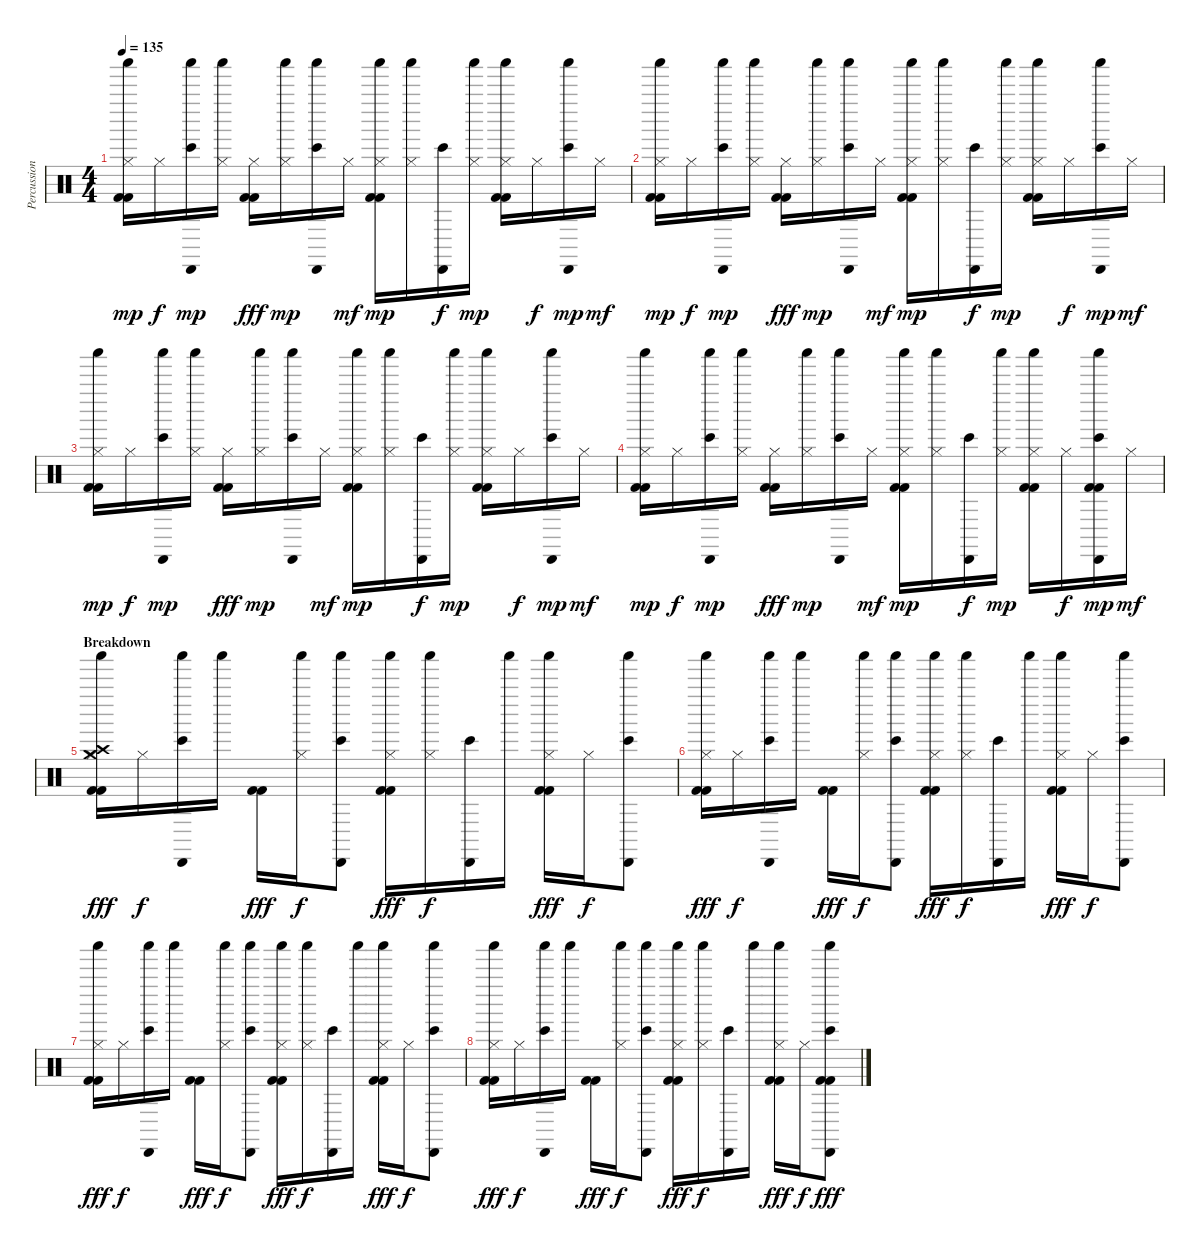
\track ("Percussion" "Percussion") {instrument percussion}
\staff {score}
\articulation defaults
\ts (4 4)
\tempo 135
\clef neutral
\ks c
("Hi-Hat (closed)" "Kick (hit) 2" "Kick (hit) 2" "Shaker (hit)").16{dy mp} "Hi-Hat (closed)".16{dy f} ("Cabasa (hit)" "Bongo High (hit)" "Shaker (hit)").16{dy mp} ("Hi-Hat (closed)" "Shaker (hit)").16 ("Hi-Hat (closed)" "Kick (hit) 2" "Kick (hit) 2").16{dy fff} ("Hi-Hat (closed)" "Shaker (hit)").16{dy mp} ("Cabasa (hit)" "Bongo High (hit)" "Shaker (hit)").16 "Hi-Hat (closed)".16{dy mf} ("Hi-Hat (closed)" "Kick (hit) 2" "Kick (hit) 2" "Shaker (hit)").16{dy mp} ("Hi-Hat (closed)" "Shaker (hit)").16 ("Cabasa (hit)" "Bongo High (hit)").16{dy f} ("Hi-Hat (closed)" "Shaker (hit)").16{dy mp} ("Hi-Hat (closed)" "Kick (hit) 2" "Kick (hit) 2" "Shaker (hit)").16 "Hi-Hat (closed)".16{dy f} ("Cabasa (hit)" "Bongo High (hit)" "Shaker (hit)").16{dy mp} "Hi-Hat (closed)".16{dy mf} |
("Hi-Hat (closed)" "Kick (hit) 2" "Kick (hit) 2" "Shaker (hit)").16{dy mp} "Hi-Hat (closed)".16{dy f} ("Cabasa (hit)" "Bongo High (hit)" "Shaker (hit)").16{dy mp} ("Hi-Hat (closed)" "Shaker (hit)").16 ("Hi-Hat (closed)" "Kick (hit) 2" "Kick (hit) 2").16{dy fff} ("Hi-Hat (closed)" "Shaker (hit)").16{dy mp} ("Cabasa (hit)" "Bongo High (hit)" "Shaker (hit)").16 "Hi-Hat (closed)".16{dy mf} ("Hi-Hat (closed)" "Kick (hit) 2" "Kick (hit) 2" "Shaker (hit)").16{dy mp} ("Hi-Hat (closed)" "Shaker (hit)").16 ("Cabasa (hit)" "Bongo High (hit)").16{dy f} ("Hi-Hat (closed)" "Shaker (hit)").16{dy mp} ("Hi-Hat (closed)" "Kick (hit) 2" "Kick (hit) 2" "Shaker (hit)").16 "Hi-Hat (closed)".16{dy f} ("Cabasa (hit)" "Bongo High (hit)" "Shaker (hit)").16{dy mp} "Hi-Hat (closed)".16{dy mf} |
("Hi-Hat (closed)" "Kick (hit) 2" "Kick (hit) 2" "Shaker (hit)").16{dy mp} "Hi-Hat (closed)".16{dy f} ("Cabasa (hit)" "Bongo High (hit)" "Shaker (hit)").16{dy mp} ("Hi-Hat (closed)" "Shaker (hit)").16 ("Hi-Hat (closed)" "Kick (hit) 2" "Kick (hit) 2").16{dy fff} ("Hi-Hat (closed)" "Shaker (hit)").16{dy mp} ("Cabasa (hit)" "Bongo High (hit)" "Shaker (hit)").16 "Hi-Hat (closed)".16{dy mf} ("Hi-Hat (closed)" "Kick (hit) 2" "Kick (hit) 2" "Shaker (hit)").16{dy mp} ("Hi-Hat (closed)" "Shaker (hit)").16 ("Cabasa (hit)" "Bongo High (hit)").16{dy f} ("Hi-Hat (closed)" "Shaker (hit)").16{dy mp} ("Hi-Hat (closed)" "Kick (hit) 2" "Kick (hit) 2" "Shaker (hit)").16 "Hi-Hat (closed)".16{dy f} ("Cabasa (hit)" "Bongo High (hit)" "Shaker (hit)").16{dy mp} "Hi-Hat (closed)".16{dy mf} |
("Hi-Hat (closed)" "Kick (hit) 2" "Kick (hit) 2" "Shaker (hit)").16{dy mp} "Hi-Hat (closed)".16{dy f} ("Cabasa (hit)" "Bongo High (hit)" "Shaker (hit)").16{dy mp} ("Hi-Hat (closed)" "Shaker (hit)").16 ("Hi-Hat (closed)" "Kick (hit) 2" "Kick (hit) 2").16{dy fff} ("Hi-Hat (closed)" "Shaker (hit)").16{dy mp} ("Cabasa (hit)" "Bongo High (hit)" "Shaker (hit)").16 "Hi-Hat (closed)".16{dy mf} ("Hi-Hat (closed)" "Kick (hit) 2" "Kick (hit) 2" "Shaker (hit)").16{dy mp} ("Hi-Hat (closed)" "Shaker (hit)").16 ("Cabasa (hit)" "Bongo High (hit)").16{dy f} ("Hi-Hat (closed)" "Shaker (hit)").16{dy mp} ("Hi-Hat (closed)" "Kick (hit) 2" "Kick (hit) 2" "Shaker (hit)").16 "Hi-Hat (closed)".16{dy f} ("Cabasa (hit)" "Bongo High (hit)" "Kick (hit) 2" "Kick (hit) 2" "Shaker (hit)").16{dy mp} "Hi-Hat (closed)".16{dy mf} |
\section ("" "Breakdown")
("Crash medium (hit)" "Hi-Hat (closed)" "Crash high (hit)" "Kick (hit) 2" "Kick (hit) 2" "Shaker (hit)").16{dy fff} "Hi-Hat (closed)".16{dy f} ("Cabasa (hit)" "Bongo High (hit)" "Shaker (hit)").16 "Shaker (hit)".16 ("Kick (hit) 2" "Kick (hit) 2").16{dy fff} ("Hi-Hat (closed)" "Shaker (hit)").16{dy f} ("Cabasa (hit)" "Bongo High (hit)" "Shaker (hit)").8 ("Hi-Hat (closed)" "Kick (hit) 2" "Kick (hit) 2" "Shaker (hit)").16{dy fff} ("Hi-Hat (closed)" "Shaker (hit)").16{dy f} ("Cabasa (hit)" "Bongo High (hit)").16 "Shaker (hit)".16 ("Hi-Hat (closed)" "Kick (hit) 2" "Kick (hit) 2" "Shaker (hit)").16{dy fff} "Hi-Hat (closed)".16{dy f} ("Cabasa (hit)" "Bongo High (hit)" "Shaker (hit)").8 |
("Hi-Hat (closed)" "Kick (hit) 2" "Kick (hit) 2" "Shaker (hit)").16{dy fff} "Hi-Hat (closed)".16{dy f} ("Cabasa (hit)" "Bongo High (hit)" "Shaker (hit)").16 "Shaker (hit)".16 ("Kick (hit) 2" "Kick (hit) 2").16{dy fff} ("Hi-Hat (closed)" "Shaker (hit)").16{dy f} ("Cabasa (hit)" "Bongo High (hit)" "Shaker (hit)").8 ("Hi-Hat (closed)" "Kick (hit) 2" "Kick (hit) 2" "Shaker (hit)").16{dy fff} ("Hi-Hat (closed)" "Shaker (hit)").16{dy f} ("Cabasa (hit)" "Bongo High (hit)").16 "Shaker (hit)".16 ("Hi-Hat (closed)" "Kick (hit) 2" "Kick (hit) 2" "Shaker (hit)").16{dy fff} "Hi-Hat (closed)".16{dy f} ("Cabasa (hit)" "Bongo High (hit)" "Shaker (hit)").8 |
("Hi-Hat (closed)" "Kick (hit) 2" "Kick (hit) 2" "Shaker (hit)").16{dy fff} "Hi-Hat (closed)".16{dy f} ("Cabasa (hit)" "Bongo High (hit)" "Shaker (hit)").16 "Shaker (hit)".16 ("Kick (hit) 2" "Kick (hit) 2").16{dy fff} ("Hi-Hat (closed)" "Shaker (hit)").16{dy f} ("Cabasa (hit)" "Bongo High (hit)" "Shaker (hit)").8 ("Hi-Hat (closed)" "Kick (hit) 2" "Kick (hit) 2" "Shaker (hit)").16{dy fff} ("Hi-Hat (closed)" "Shaker (hit)").16{dy f} ("Cabasa (hit)" "Bongo High (hit)").16 "Shaker (hit)".16 ("Hi-Hat (closed)" "Kick (hit) 2" "Kick (hit) 2" "Shaker (hit)").16{dy fff} "Hi-Hat (closed)".16{dy f} ("Cabasa (hit)" "Bongo High (hit)" "Shaker (hit)").8 |
("Hi-Hat (closed)" "Kick (hit) 2" "Kick (hit) 2" "Shaker (hit)").16{dy fff} "Hi-Hat (closed)".16{dy f} ("Cabasa (hit)" "Bongo High (hit)" "Shaker (hit)").16 "Shaker (hit)".16 ("Kick (hit) 2" "Kick (hit) 2").16{dy fff} ("Hi-Hat (closed)" "Shaker (hit)").16{dy f} ("Cabasa (hit)" "Bongo High (hit)" "Shaker (hit)").8 ("Hi-Hat (closed)" "Kick (hit) 2" "Kick (hit) 2" "Shaker (hit)").16{dy fff} ("Hi-Hat (closed)" "Shaker (hit)").16{dy f} ("Cabasa (hit)" "Bongo High (hit)").16 "Shaker (hit)".16 ("Hi-Hat (closed)" "Kick (hit) 2" "Kick (hit) 2" "Shaker (hit)").16{dy fff} "Hi-Hat (closed)".16{dy f} ("Cabasa (hit)" "Bongo High (hit)" "Kick (hit) 2" "Kick (hit) 2" "Shaker (hit)").8{dy fff}
